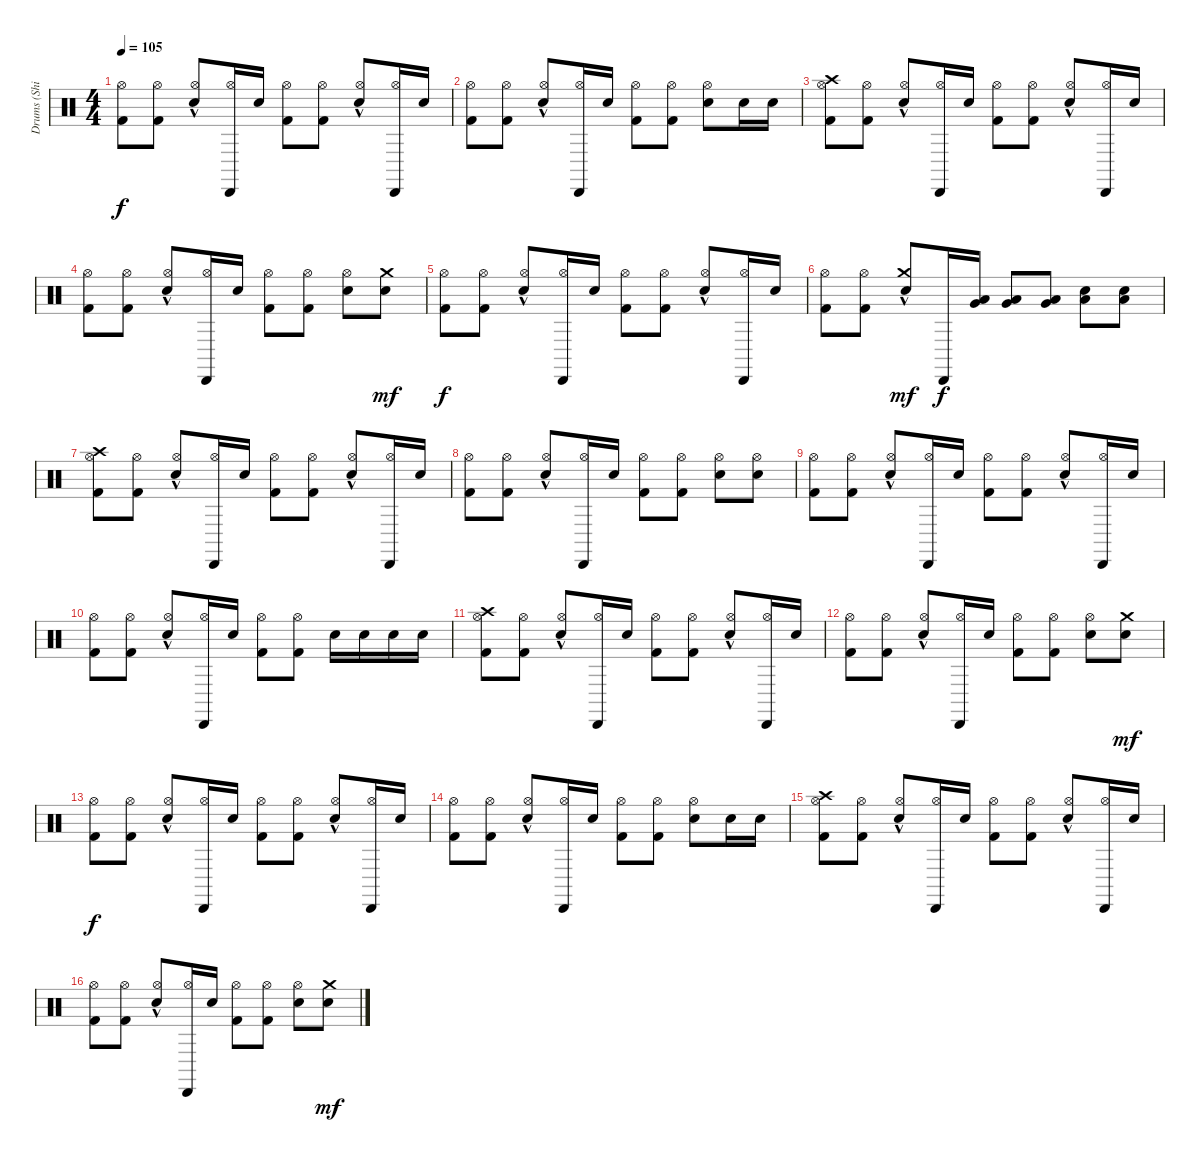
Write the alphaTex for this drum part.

\track ("Drums (Shinya)" "Drums (Shi") {instrument percussion}
\staff {score}
\articulation defaults
\ts (4 4)
\tempo 105
\clef neutral
\ks c
("Hi-Hat (open)" "Kick (hit) 2").8{dy f} ("Hi-Hat (open)" "Kick (hit) 2").8 ("Hi-Hat (open)" "Electric Snare (hit)"{hac}).8 ("Hi-Hat (open)" "Cabasa (hit)").16 "Electric Snare (hit)".16 ("Kick (hit) 2" "Hi-Hat (open)").8 ("Hi-Hat (open)" "Kick (hit) 2").8 ("Electric Snare (hit)"{hac} "Hi-Hat (open)").8 ("Hi-Hat (open)" "Cabasa (hit)").16 "Electric Snare (hit)".16 |
("Hi-Hat (open)" "Kick (hit) 2").8 ("Hi-Hat (open)" "Kick (hit) 2").8 ("Electric Snare (hit)"{hac} "Hi-Hat (open)").8 ("Hi-Hat (open)" "Cabasa (hit)").16 "Electric Snare (hit)".16 ("Hi-Hat (open)" "Kick (hit) 2").8 ("Hi-Hat (open)" "Kick (hit) 2").8 ("Electric Snare (hit)" "Hi-Hat (open)").8 "Electric Snare (hit)".16 "Electric Snare (hit)".16 |
("Hi-Hat (open)" "Crash high (hit)" "Kick (hit) 2").8 ("Hi-Hat (open)" "Kick (hit) 2").8 ("Hi-Hat (open)" "Electric Snare (hit)"{hac}).8 ("Hi-Hat (open)" "Cabasa (hit)").16 "Electric Snare (hit)".16 ("Kick (hit) 2" "Hi-Hat (open)").8 ("Hi-Hat (open)" "Kick (hit) 2").8 ("Electric Snare (hit)"{hac} "Hi-Hat (open)").8 ("Hi-Hat (open)" "Cabasa (hit)").16 "Electric Snare (hit)".16 |
("Hi-Hat (open)" "Kick (hit) 2").8 ("Hi-Hat (open)" "Kick (hit) 2").8 ("Electric Snare (hit)"{hac} "Hi-Hat (open)").8 ("Hi-Hat (open)" "Cabasa (hit)").16 "Electric Snare (hit)".16 ("Hi-Hat (open)" "Kick (hit) 2").8 ("Hi-Hat (open)" "Kick (hit) 2").8 ("Electric Snare (hit)" "Hi-Hat (open)").8 ("Crash medium (hit)" "Electric Snare (hit)").8{dy mf} |
("Hi-Hat (open)" "Kick (hit) 2").8{dy f} ("Hi-Hat (open)" "Kick (hit) 2").8 ("Hi-Hat (open)" "Electric Snare (hit)"{hac}).8 ("Hi-Hat (open)" "Cabasa (hit)").16 "Electric Snare (hit)".16 ("Kick (hit) 2" "Hi-Hat (open)").8 ("Hi-Hat (open)" "Kick (hit) 2").8 ("Electric Snare (hit)"{hac} "Hi-Hat (open)").8 ("Hi-Hat (open)" "Cabasa (hit)").16 "Electric Snare (hit)".16 |
("Hi-Hat (open)" "Kick (hit) 2").8 ("Hi-Hat (open)" "Kick (hit) 2").8 ("Crash medium (hit)" "Electric Snare (hit)"{hac}).8{dy mf} "Cabasa (hit)".16{dy f} ("Low Tom (hit)" "Very Low Tom (hit)").16 ("Very Low Tom (hit)" "Low Floor Tom (hit)").8 ("Low Floor Tom (hit)" "Very Low Tom (hit)").8 ("Snare (hit) 2" "Low Floor Tom (hit)").8 ("Snare (hit) 2" "Low Floor Tom (hit)").8 |
("Hi-Hat (open)" "Crash high (hit)" "Kick (hit) 2").8 ("Hi-Hat (open)" "Kick (hit) 2").8 ("Hi-Hat (open)" "Electric Snare (hit)"{hac}).8 ("Hi-Hat (open)" "Cabasa (hit)").16 "Electric Snare (hit)".16 ("Kick (hit) 2" "Hi-Hat (open)").8 ("Hi-Hat (open)" "Kick (hit) 2").8 ("Electric Snare (hit)"{hac} "Hi-Hat (open)").8 ("Hi-Hat (open)" "Cabasa (hit)").16 "Electric Snare (hit)".16 |
("Hi-Hat (open)" "Kick (hit) 2").8 ("Hi-Hat (open)" "Kick (hit) 2").8 ("Electric Snare (hit)"{hac} "Hi-Hat (open)").8 ("Hi-Hat (open)" "Cabasa (hit)").16 "Electric Snare (hit)".16 ("Hi-Hat (open)" "Kick (hit) 2").8 ("Hi-Hat (open)" "Kick (hit) 2").8 ("Electric Snare (hit)" "Hi-Hat (open)").8 ("Hi-Hat (open)" "Electric Snare (hit)").8 |
("Hi-Hat (open)" "Kick (hit) 2").8 ("Hi-Hat (open)" "Kick (hit) 2").8 ("Hi-Hat (open)" "Electric Snare (hit)"{hac}).8 ("Hi-Hat (open)" "Cabasa (hit)").16 "Electric Snare (hit)".16 ("Kick (hit) 2" "Hi-Hat (open)").8 ("Hi-Hat (open)" "Kick (hit) 2").8 ("Electric Snare (hit)"{hac} "Hi-Hat (open)").8 ("Hi-Hat (open)" "Cabasa (hit)").16 "Electric Snare (hit)".16 |
("Hi-Hat (open)" "Kick (hit) 2").8 ("Hi-Hat (open)" "Kick (hit) 2").8 ("Electric Snare (hit)"{hac} "Hi-Hat (open)").8 ("Hi-Hat (open)" "Cabasa (hit)").16 "Electric Snare (hit)".16 ("Hi-Hat (open)" "Kick (hit) 2").8 ("Hi-Hat (open)" "Kick (hit) 2").8 "Electric Snare (hit)".16 "Electric Snare (hit)".16 "Electric Snare (hit)".16 "Electric Snare (hit)".16 |
("Hi-Hat (open)" "Crash high (hit)" "Kick (hit) 2").8 ("Hi-Hat (open)" "Kick (hit) 2").8 ("Hi-Hat (open)" "Electric Snare (hit)"{hac}).8 ("Hi-Hat (open)" "Cabasa (hit)").16 "Electric Snare (hit)".16 ("Kick (hit) 2" "Hi-Hat (open)").8 ("Hi-Hat (open)" "Kick (hit) 2").8 ("Electric Snare (hit)"{hac} "Hi-Hat (open)").8 ("Hi-Hat (open)" "Cabasa (hit)").16 "Electric Snare (hit)".16 |
("Hi-Hat (open)" "Kick (hit) 2").8 ("Hi-Hat (open)" "Kick (hit) 2").8 ("Electric Snare (hit)"{hac} "Hi-Hat (open)").8 ("Hi-Hat (open)" "Cabasa (hit)").16 "Electric Snare (hit)".16 ("Hi-Hat (open)" "Kick (hit) 2").8 ("Hi-Hat (open)" "Kick (hit) 2").8 ("Electric Snare (hit)" "Hi-Hat (open)").8 ("Crash medium (hit)" "Electric Snare (hit)").8{dy mf} |
("Hi-Hat (open)" "Kick (hit) 2").8{dy f} ("Hi-Hat (open)" "Kick (hit) 2").8 ("Hi-Hat (open)" "Electric Snare (hit)"{hac}).8 ("Hi-Hat (open)" "Cabasa (hit)").16 "Electric Snare (hit)".16 ("Kick (hit) 2" "Hi-Hat (open)").8 ("Hi-Hat (open)" "Kick (hit) 2").8 ("Electric Snare (hit)"{hac} "Hi-Hat (open)").8 ("Hi-Hat (open)" "Cabasa (hit)").16 "Electric Snare (hit)".16 |
("Hi-Hat (open)" "Kick (hit) 2").8 ("Hi-Hat (open)" "Kick (hit) 2").8 ("Electric Snare (hit)"{hac} "Hi-Hat (open)").8 ("Hi-Hat (open)" "Cabasa (hit)").16 "Electric Snare (hit)".16 ("Hi-Hat (open)" "Kick (hit) 2").8 ("Hi-Hat (open)" "Kick (hit) 2").8 ("Electric Snare (hit)" "Hi-Hat (open)").8 "Electric Snare (hit)".16 "Electric Snare (hit)".16 |
("Hi-Hat (open)" "Crash high (hit)" "Kick (hit) 2").8 ("Hi-Hat (open)" "Kick (hit) 2").8 ("Hi-Hat (open)" "Electric Snare (hit)"{hac}).8 ("Hi-Hat (open)" "Cabasa (hit)").16 "Electric Snare (hit)".16 ("Kick (hit) 2" "Hi-Hat (open)").8 ("Hi-Hat (open)" "Kick (hit) 2").8 ("Electric Snare (hit)"{hac} "Hi-Hat (open)").8 ("Hi-Hat (open)" "Cabasa (hit)").16 "Electric Snare (hit)".16 |
("Hi-Hat (open)" "Kick (hit) 2").8 ("Hi-Hat (open)" "Kick (hit) 2").8 ("Electric Snare (hit)"{hac} "Hi-Hat (open)").8 ("Hi-Hat (open)" "Cabasa (hit)").16 "Electric Snare (hit)".16 ("Hi-Hat (open)" "Kick (hit) 2").8 ("Hi-Hat (open)" "Kick (hit) 2").8 ("Electric Snare (hit)" "Hi-Hat (open)").8 ("Crash medium (hit)" "Electric Snare (hit)").8{dy mf}
